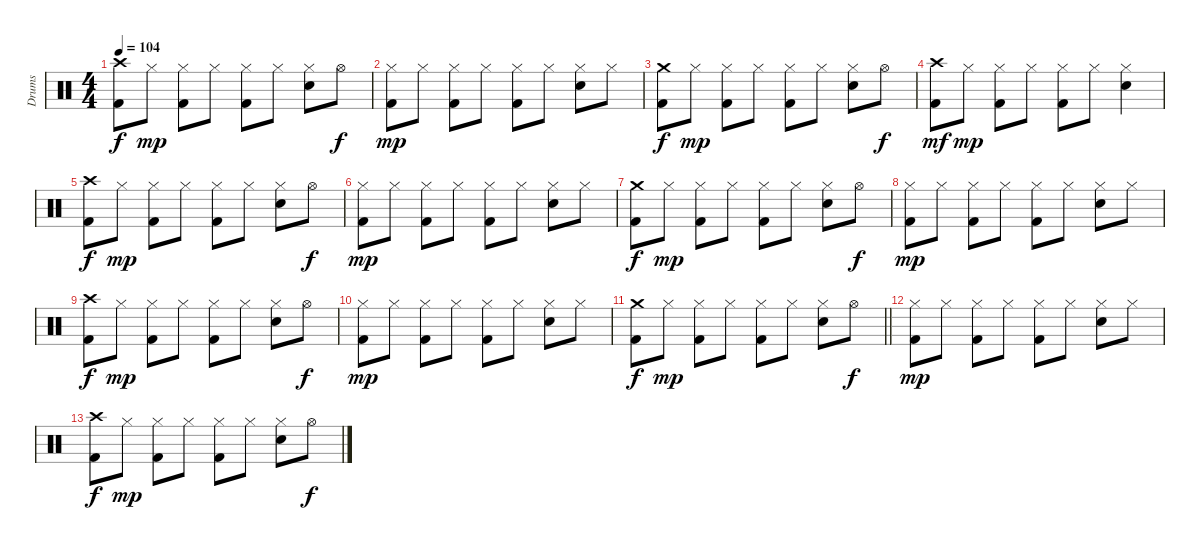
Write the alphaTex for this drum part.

\track ("Drums" "Drums") {instrument percussion}
\staff {score}
\articulation defaults
\ts (4 4)
\tempo 104
\clef neutral
\ks c
("Crash high (hit)" "Kick (hit) 2").8{dy f} "Hi-Hat (closed)".8{dy mp} ("Hi-Hat (closed)" "Kick (hit) 2").8 "Hi-Hat (closed)".8 ("Hi-Hat (closed)" "Kick (hit) 2").8 "Hi-Hat (closed)".8 ("Hi-Hat (closed)" "Snare (hit) 2").8 "Hi-Hat (open)".8{dy f} |
("Hi-Hat (closed)" "Kick (hit) 2").8{dy mp} "Hi-Hat (closed)".8 ("Hi-Hat (closed)" "Kick (hit) 2").8 "Hi-Hat (closed)".8 ("Hi-Hat (closed)" "Kick (hit) 2").8 "Hi-Hat (closed)".8 ("Hi-Hat (closed)" "Snare (hit) 2").8 "Hi-Hat (closed)".8 |
("Crash medium (hit)" "Kick (hit) 2").8{dy f} "Hi-Hat (closed)".8{dy mp} ("Hi-Hat (closed)" "Kick (hit) 2").8 "Hi-Hat (closed)".8 ("Hi-Hat (closed)" "Kick (hit) 2").8 "Hi-Hat (closed)".8 ("Hi-Hat (closed)" "Snare (hit) 2").8 "Hi-Hat (open)".8{dy f} |
("Crash high (hit)" "Kick (hit) 2").8{dy mf} "Hi-Hat (closed)".8{dy mp} ("Hi-Hat (closed)" "Kick (hit) 2").8 "Hi-Hat (closed)".8 ("Hi-Hat (closed)" "Kick (hit) 2").8 "Hi-Hat (closed)".8 ("Hi-Hat (closed)" "Snare (hit) 2").4 |
("Crash high (hit)" "Kick (hit) 2").8{dy f} "Hi-Hat (closed)".8{dy mp} ("Hi-Hat (closed)" "Kick (hit) 2").8 "Hi-Hat (closed)".8 ("Hi-Hat (closed)" "Kick (hit) 2").8 "Hi-Hat (closed)".8 ("Hi-Hat (closed)" "Snare (hit) 2").8 "Hi-Hat (open)".8{dy f} |
("Hi-Hat (closed)" "Kick (hit) 2").8{dy mp} "Hi-Hat (closed)".8 ("Hi-Hat (closed)" "Kick (hit) 2").8 "Hi-Hat (closed)".8 ("Hi-Hat (closed)" "Kick (hit) 2").8 "Hi-Hat (closed)".8 ("Hi-Hat (closed)" "Snare (hit) 2").8 "Hi-Hat (closed)".8 |
("Crash medium (hit)" "Kick (hit) 2").8{dy f} "Hi-Hat (closed)".8{dy mp} ("Hi-Hat (closed)" "Kick (hit) 2").8 "Hi-Hat (closed)".8 ("Hi-Hat (closed)" "Kick (hit) 2").8 "Hi-Hat (closed)".8 ("Hi-Hat (closed)" "Snare (hit) 2").8 "Hi-Hat (open)".8{dy f} |
("Hi-Hat (closed)" "Kick (hit) 2").8{dy mp} "Hi-Hat (closed)".8 ("Hi-Hat (closed)" "Kick (hit) 2").8 "Hi-Hat (closed)".8 ("Hi-Hat (closed)" "Kick (hit) 2").8 "Hi-Hat (closed)".8 ("Hi-Hat (closed)" "Snare (hit) 2").8 "Hi-Hat (closed)".8 |
("Crash high (hit)" "Kick (hit) 2").8{dy f} "Hi-Hat (closed)".8{dy mp} ("Hi-Hat (closed)" "Kick (hit) 2").8 "Hi-Hat (closed)".8 ("Hi-Hat (closed)" "Kick (hit) 2").8 "Hi-Hat (closed)".8 ("Hi-Hat (closed)" "Snare (hit) 2").8 "Hi-Hat (open)".8{dy f} |
("Hi-Hat (closed)" "Kick (hit) 2").8{dy mp} "Hi-Hat (closed)".8 ("Hi-Hat (closed)" "Kick (hit) 2").8 "Hi-Hat (closed)".8 ("Hi-Hat (closed)" "Kick (hit) 2").8 "Hi-Hat (closed)".8 ("Hi-Hat (closed)" "Snare (hit) 2").8 "Hi-Hat (closed)".8 |
\barLineRight lightlight
("Crash medium (hit)" "Kick (hit) 2").8{dy f} "Hi-Hat (closed)".8{dy mp} ("Hi-Hat (closed)" "Kick (hit) 2").8 "Hi-Hat (closed)".8 ("Hi-Hat (closed)" "Kick (hit) 2").8 "Hi-Hat (closed)".8 ("Hi-Hat (closed)" "Snare (hit) 2").8 "Hi-Hat (open)".8{dy f} |
("Hi-Hat (closed)" "Kick (hit) 2").8{dy mp} "Hi-Hat (closed)".8 ("Hi-Hat (closed)" "Kick (hit) 2").8 "Hi-Hat (closed)".8 ("Hi-Hat (closed)" "Kick (hit) 2").8 "Hi-Hat (closed)".8 ("Hi-Hat (closed)" "Snare (hit) 2").8 "Hi-Hat (closed)".8 |
("Crash high (hit)" "Kick (hit) 2").8{dy f} "Hi-Hat (closed)".8{dy mp} ("Hi-Hat (closed)" "Kick (hit) 2").8 "Hi-Hat (closed)".8 ("Hi-Hat (closed)" "Kick (hit) 2").8 "Hi-Hat (closed)".8 ("Hi-Hat (closed)" "Snare (hit) 2").8 "Hi-Hat (open)".8{dy f}
